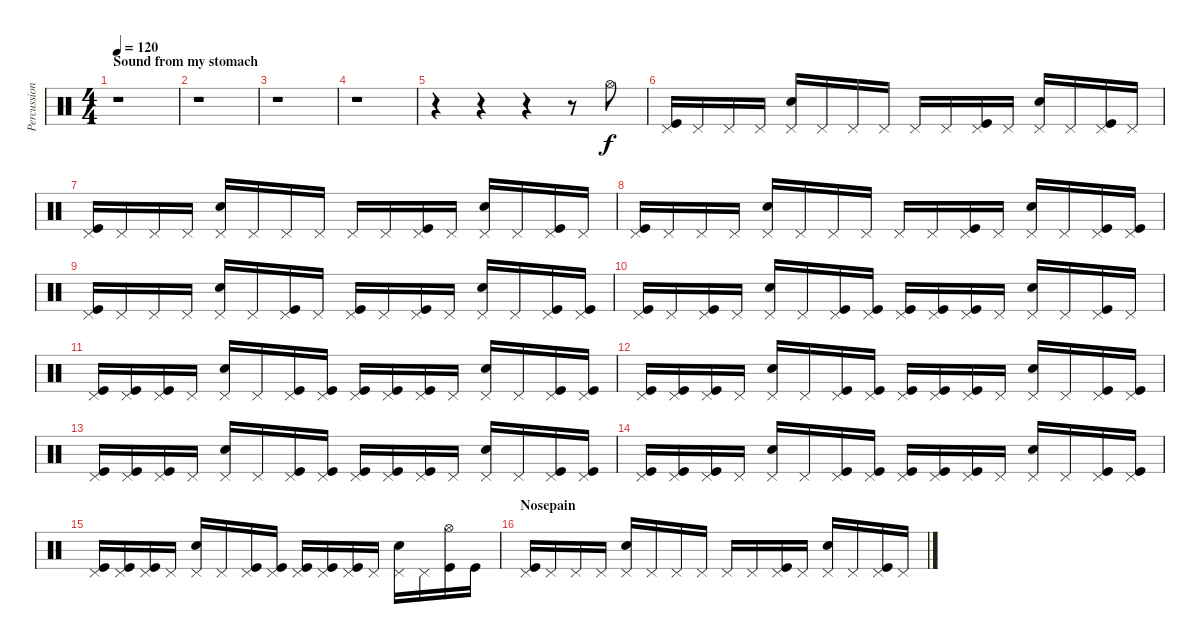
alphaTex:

\track ("Percussion" "Percussion") {instrument percussion}
\staff {score}
\articulation defaults
\ts (4 4)
\section ("" "Sound from my stomach")
\tempo 120
\clef neutral
\ks c
r.1{dy f} |
r.1 |
r.1 |
r.1 |
r.4 r.4 r.4 r.8 "Hi-Hat (open)".8 |
("Kick (hit)" "Pedal Hi-Hat (hit)").16 "Pedal Hi-Hat (hit)".16 "Pedal Hi-Hat (hit)".16 "Pedal Hi-Hat (hit)".16 ("Snare (hit) 2" "Pedal Hi-Hat (hit)").16 "Pedal Hi-Hat (hit)".16 "Pedal Hi-Hat (hit)".16 "Pedal Hi-Hat (hit)".16 "Pedal Hi-Hat (hit)".16 "Pedal Hi-Hat (hit)".16 ("Kick (hit)" "Pedal Hi-Hat (hit)").16 "Pedal Hi-Hat (hit)".16 ("Snare (hit) 2" "Pedal Hi-Hat (hit)").16 "Pedal Hi-Hat (hit)".16 ("Kick (hit)" "Pedal Hi-Hat (hit)").16 "Pedal Hi-Hat (hit)".16 |
("Kick (hit)" "Pedal Hi-Hat (hit)").16 "Pedal Hi-Hat (hit)".16 "Pedal Hi-Hat (hit)".16 "Pedal Hi-Hat (hit)".16 ("Snare (hit) 2" "Pedal Hi-Hat (hit)").16 "Pedal Hi-Hat (hit)".16 "Pedal Hi-Hat (hit)".16 "Pedal Hi-Hat (hit)".16 "Pedal Hi-Hat (hit)".16 "Pedal Hi-Hat (hit)".16 ("Kick (hit)" "Pedal Hi-Hat (hit)").16 "Pedal Hi-Hat (hit)".16 ("Snare (hit) 2" "Pedal Hi-Hat (hit)").16 "Pedal Hi-Hat (hit)".16 ("Kick (hit)" "Pedal Hi-Hat (hit)").16 "Pedal Hi-Hat (hit)".16 |
("Kick (hit)" "Pedal Hi-Hat (hit)").16 "Pedal Hi-Hat (hit)".16 "Pedal Hi-Hat (hit)".16 "Pedal Hi-Hat (hit)".16 ("Snare (hit) 2" "Pedal Hi-Hat (hit)").16 "Pedal Hi-Hat (hit)".16 "Pedal Hi-Hat (hit)".16 "Pedal Hi-Hat (hit)".16 "Pedal Hi-Hat (hit)".16 "Pedal Hi-Hat (hit)".16 ("Kick (hit)" "Pedal Hi-Hat (hit)").16 "Pedal Hi-Hat (hit)".16 ("Snare (hit) 2" "Pedal Hi-Hat (hit)").16 "Pedal Hi-Hat (hit)".16 ("Kick (hit)" "Pedal Hi-Hat (hit)").16 ("Kick (hit)" "Pedal Hi-Hat (hit)").16 |
("Kick (hit)" "Pedal Hi-Hat (hit)").16 "Pedal Hi-Hat (hit)".16 "Pedal Hi-Hat (hit)".16 "Pedal Hi-Hat (hit)".16 ("Snare (hit) 2" "Pedal Hi-Hat (hit)").16 "Pedal Hi-Hat (hit)".16 ("Kick (hit)" "Pedal Hi-Hat (hit)").16 "Pedal Hi-Hat (hit)".16 ("Kick (hit)" "Pedal Hi-Hat (hit)").16 "Pedal Hi-Hat (hit)".16 ("Kick (hit)" "Pedal Hi-Hat (hit)").16 "Pedal Hi-Hat (hit)".16 ("Snare (hit) 2" "Pedal Hi-Hat (hit)").16 "Pedal Hi-Hat (hit)".16 ("Kick (hit)" "Pedal Hi-Hat (hit)").16 ("Kick (hit)" "Pedal Hi-Hat (hit)").16 |
("Kick (hit)" "Pedal Hi-Hat (hit)").16 "Pedal Hi-Hat (hit)".16 ("Kick (hit)" "Pedal Hi-Hat (hit)").16 "Pedal Hi-Hat (hit)".16 ("Snare (hit) 2" "Pedal Hi-Hat (hit)").16 "Pedal Hi-Hat (hit)".16 ("Kick (hit)" "Pedal Hi-Hat (hit)").16 ("Kick (hit)" "Pedal Hi-Hat (hit)").16 ("Kick (hit)" "Pedal Hi-Hat (hit)").16 ("Kick (hit)" "Pedal Hi-Hat (hit)").16 ("Kick (hit)" "Pedal Hi-Hat (hit)").16 "Pedal Hi-Hat (hit)".16 ("Snare (hit) 2" "Pedal Hi-Hat (hit)").16 "Pedal Hi-Hat (hit)".16 ("Kick (hit)" "Pedal Hi-Hat (hit)").16 "Pedal Hi-Hat (hit)".16 |
("Kick (hit)" "Pedal Hi-Hat (hit)").16 ("Kick (hit)" "Pedal Hi-Hat (hit)").16 ("Kick (hit)" "Pedal Hi-Hat (hit)").16 "Pedal Hi-Hat (hit)".16 ("Snare (hit) 2" "Pedal Hi-Hat (hit)").16 "Pedal Hi-Hat (hit)".16 ("Kick (hit)" "Pedal Hi-Hat (hit)").16 ("Kick (hit)" "Pedal Hi-Hat (hit)").16 ("Kick (hit)" "Pedal Hi-Hat (hit)").16 ("Kick (hit)" "Pedal Hi-Hat (hit)").16 ("Kick (hit)" "Pedal Hi-Hat (hit)").16 "Pedal Hi-Hat (hit)".16 ("Snare (hit) 2" "Pedal Hi-Hat (hit)").16 "Pedal Hi-Hat (hit)".16 ("Kick (hit)" "Pedal Hi-Hat (hit)").16 ("Kick (hit)" "Pedal Hi-Hat (hit)").16 |
("Kick (hit)" "Pedal Hi-Hat (hit)").16 ("Kick (hit)" "Pedal Hi-Hat (hit)").16 ("Kick (hit)" "Pedal Hi-Hat (hit)").16 "Pedal Hi-Hat (hit)".16 ("Snare (hit) 2" "Pedal Hi-Hat (hit)").16 "Pedal Hi-Hat (hit)".16 ("Kick (hit)" "Pedal Hi-Hat (hit)").16 ("Kick (hit)" "Pedal Hi-Hat (hit)").16 ("Kick (hit)" "Pedal Hi-Hat (hit)").16 ("Kick (hit)" "Pedal Hi-Hat (hit)").16 ("Kick (hit)" "Pedal Hi-Hat (hit)").16 "Pedal Hi-Hat (hit)".16 ("Snare (hit) 2" "Pedal Hi-Hat (hit)").16 "Pedal Hi-Hat (hit)".16 ("Kick (hit)" "Pedal Hi-Hat (hit)").16 ("Kick (hit)" "Pedal Hi-Hat (hit)").16 |
("Kick (hit)" "Pedal Hi-Hat (hit)").16 ("Kick (hit)" "Pedal Hi-Hat (hit)").16 ("Kick (hit)" "Pedal Hi-Hat (hit)").16 "Pedal Hi-Hat (hit)".16 ("Snare (hit) 2" "Pedal Hi-Hat (hit)").16 "Pedal Hi-Hat (hit)".16 ("Kick (hit)" "Pedal Hi-Hat (hit)").16 ("Kick (hit)" "Pedal Hi-Hat (hit)").16 ("Kick (hit)" "Pedal Hi-Hat (hit)").16 ("Kick (hit)" "Pedal Hi-Hat (hit)").16 ("Kick (hit)" "Pedal Hi-Hat (hit)").16 "Pedal Hi-Hat (hit)".16 ("Snare (hit) 2" "Pedal Hi-Hat (hit)").16 "Pedal Hi-Hat (hit)".16 ("Kick (hit)" "Pedal Hi-Hat (hit)").16 ("Kick (hit)" "Pedal Hi-Hat (hit)").16 |
("Kick (hit)" "Pedal Hi-Hat (hit)").16 ("Kick (hit)" "Pedal Hi-Hat (hit)").16 ("Kick (hit)" "Pedal Hi-Hat (hit)").16 "Pedal Hi-Hat (hit)".16 ("Snare (hit) 2" "Pedal Hi-Hat (hit)").16 "Pedal Hi-Hat (hit)".16 ("Kick (hit)" "Pedal Hi-Hat (hit)").16 ("Kick (hit)" "Pedal Hi-Hat (hit)").16 ("Kick (hit)" "Pedal Hi-Hat (hit)").16 ("Kick (hit)" "Pedal Hi-Hat (hit)").16 ("Kick (hit)" "Pedal Hi-Hat (hit)").16 "Pedal Hi-Hat (hit)".16 ("Snare (hit) 2" "Pedal Hi-Hat (hit)").16 "Pedal Hi-Hat (hit)".16 ("Kick (hit)" "Pedal Hi-Hat (hit)").16 ("Kick (hit)" "Pedal Hi-Hat (hit)").16 |
("Kick (hit)" "Pedal Hi-Hat (hit)").16 ("Kick (hit)" "Pedal Hi-Hat (hit)").16 ("Kick (hit)" "Pedal Hi-Hat (hit)").16 "Pedal Hi-Hat (hit)".16 ("Snare (hit) 2" "Pedal Hi-Hat (hit)").16 "Pedal Hi-Hat (hit)".16 ("Kick (hit)" "Pedal Hi-Hat (hit)").16 ("Kick (hit)" "Pedal Hi-Hat (hit)").16 ("Kick (hit)" "Pedal Hi-Hat (hit)").16 ("Kick (hit)" "Pedal Hi-Hat (hit)").16 ("Kick (hit)" "Pedal Hi-Hat (hit)").16 "Pedal Hi-Hat (hit)".16 ("Snare (hit) 2" "Pedal Hi-Hat (hit)").16 "Pedal Hi-Hat (hit)".16 ("Kick (hit)" "Hi-Hat (open)").16 "Kick (hit)".16 |
\section ("" "Nosepain")
("Kick (hit)" "Pedal Hi-Hat (hit)").16 "Pedal Hi-Hat (hit)".16 "Pedal Hi-Hat (hit)".16 "Pedal Hi-Hat (hit)".16 ("Snare (hit) 2" "Pedal Hi-Hat (hit)").16 "Pedal Hi-Hat (hit)".16 "Pedal Hi-Hat (hit)".16 "Pedal Hi-Hat (hit)".16 "Pedal Hi-Hat (hit)".16 "Pedal Hi-Hat (hit)".16 ("Kick (hit)" "Pedal Hi-Hat (hit)").16 "Pedal Hi-Hat (hit)".16 ("Snare (hit) 2" "Pedal Hi-Hat (hit)").16 "Pedal Hi-Hat (hit)".16 ("Kick (hit)" "Pedal Hi-Hat (hit)").16 "Pedal Hi-Hat (hit)".16
